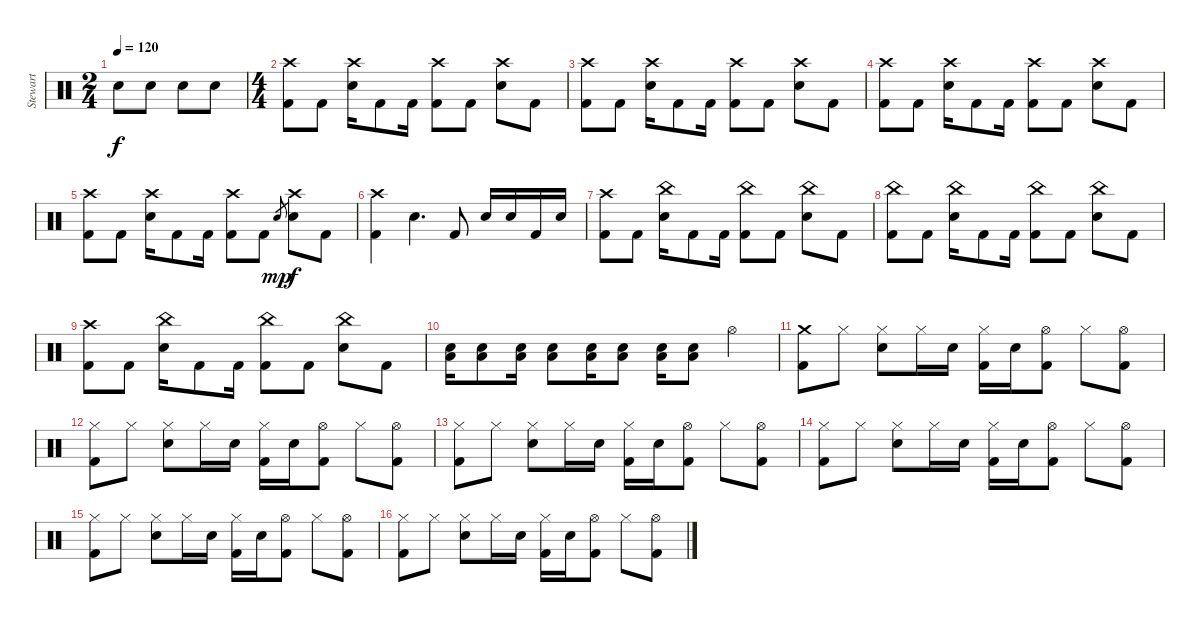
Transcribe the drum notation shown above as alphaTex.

\track ("Stewart" "Stewart") {instrument percussion}
\staff {score}
\articulation defaults
\ts (2 4)
\tempo 120
\clef neutral
\ks c "Electric Snare (hit)".8{dy f} "Electric Snare (hit)".8 "Electric Snare (hit)".8 "Electric Snare (hit)".8
|
\ts (4 4)
("Kick (hit) 2" "Crash high (hit)").8 "Kick (hit) 2".8 ("Electric Snare (hit)" "Crash high (hit)").16 "Kick (hit) 2".8 "Kick (hit) 2".16 ("Kick (hit) 2" "Crash high (hit)").8 "Kick (hit) 2".8 ("Electric Snare (hit)" "Crash high (hit)").8 "Kick (hit) 2".8 |
("Kick (hit) 2" "Crash high (hit)").8 "Kick (hit) 2".8 ("Electric Snare (hit)" "Crash high (hit)").16 "Kick (hit) 2".8 "Kick (hit) 2".16 ("Kick (hit) 2" "Crash high (hit)").8 "Kick (hit) 2".8 ("Electric Snare (hit)" "Crash high (hit)").8 "Kick (hit) 2".8 |
("Kick (hit) 2" "Crash high (hit)").8 "Kick (hit) 2".8 ("Electric Snare (hit)" "Crash high (hit)").16 "Kick (hit) 2".8 "Kick (hit) 2".16 ("Kick (hit) 2" "Crash high (hit)").8 "Kick (hit) 2".8 ("Electric Snare (hit)" "Crash high (hit)").8 "Kick (hit) 2".8 |
("Kick (hit) 2" "Crash high (hit)").8 "Kick (hit) 2".8 ("Electric Snare (hit)" "Crash high (hit)").16 "Kick (hit) 2".8 "Kick (hit) 2".16 ("Kick (hit) 2" "Crash high (hit)").8 "Kick (hit) 2".8 "Snare (hit) 2".8{gr dy mp} ("Electric Snare (hit)" "Crash high (hit)").8{dy f} "Kick (hit) 2".8 |
("Kick (hit) 2" "Crash high (hit)").4 "Electric Snare (hit)".4{d} "Kick (hit) 2".8 "Electric Snare (hit)".16 "Electric Snare (hit)".16 "Kick (hit) 2".16 "Electric Snare (hit)".16 |
("Kick (hit) 2" "Crash high (hit)").8 "Kick (hit) 2".8 ("Electric Snare (hit)" "China (hit)").16 "Kick (hit) 2".8 "Kick (hit) 2".16 ("Kick (hit) 2" "China (hit)").8 "Kick (hit) 2".8 ("Electric Snare (hit)" "China (hit)").8 "Kick (hit) 2".8 |
("Kick (hit) 2" "China (hit)").8 "Kick (hit) 2".8 ("Electric Snare (hit)" "China (hit)").16 "Kick (hit) 2".8 "Kick (hit) 2".16 ("Kick (hit) 2" "China (hit)").8 "Kick (hit) 2".8 ("Electric Snare (hit)" "China (hit)").8 "Kick (hit) 2".8 |
("Kick (hit) 2" "Crash high (hit)").8 "Kick (hit) 2".8 ("Electric Snare (hit)" "China (hit)").16 "Kick (hit) 2".8 "Kick (hit) 2".16 ("Kick (hit) 2" "China (hit)").8 "Kick (hit) 2".8 ("Electric Snare (hit)" "China (hit)").8 "Kick (hit) 2".8 |
("Electric Snare (hit)" "Low Tom (hit)").16 ("Electric Snare (hit)" "Low Tom (hit)").8 ("Electric Snare (hit)" "Low Tom (hit)").16 ("Electric Snare (hit)" "Low Tom (hit)").8 ("Electric Snare (hit)" "Low Tom (hit)").16 ("Electric Snare (hit)" "Low Tom (hit)").8 ("Electric Snare (hit)" "Low Tom (hit)").16 ("Electric Snare (hit)" "Low Tom (hit)").8 "Hi-Hat (open)".4 |
("Crash medium (hit)" "Kick (hit) 2").8 "Hi-Hat (closed)".8 ("Hi-Hat (closed)" "Electric Snare (hit)").8 "Hi-Hat (closed)".16 "Electric Snare (hit)".16 ("Hi-Hat (closed)" "Kick (hit) 2").16 "Electric Snare (hit)".16 ("Hi-Hat (open)" "Kick (hit) 2").8 "Hi-Hat (closed)".8 ("Hi-Hat (open)" "Kick (hit) 2").8 |
("Hi-Hat (closed)" "Kick (hit) 2").8 "Hi-Hat (closed)".8 ("Hi-Hat (closed)" "Electric Snare (hit)").8 "Hi-Hat (closed)".16 "Electric Snare (hit)".16 ("Hi-Hat (closed)" "Kick (hit) 2").16 "Electric Snare (hit)".16 ("Hi-Hat (open)" "Kick (hit) 2").8 "Hi-Hat (closed)".8 ("Hi-Hat (open)" "Kick (hit) 2").8 |
("Hi-Hat (closed)" "Kick (hit) 2").8 "Hi-Hat (closed)".8 ("Hi-Hat (closed)" "Electric Snare (hit)").8 "Hi-Hat (closed)".16 "Electric Snare (hit)".16 ("Hi-Hat (closed)" "Kick (hit) 2").16 "Electric Snare (hit)".16 ("Hi-Hat (open)" "Kick (hit) 2").8 "Hi-Hat (closed)".8 ("Hi-Hat (open)" "Kick (hit) 2").8 |
("Hi-Hat (closed)" "Kick (hit) 2").8 "Hi-Hat (closed)".8 ("Hi-Hat (closed)" "Electric Snare (hit)").8 "Hi-Hat (closed)".16 "Electric Snare (hit)".16 ("Hi-Hat (closed)" "Kick (hit) 2").16 "Electric Snare (hit)".16 ("Hi-Hat (open)" "Kick (hit) 2").8 "Hi-Hat (closed)".8 ("Hi-Hat (open)" "Kick (hit) 2").8 |
("Hi-Hat (closed)" "Kick (hit) 2").8 "Hi-Hat (closed)".8 ("Hi-Hat (closed)" "Electric Snare (hit)").8 "Hi-Hat (closed)".16 "Electric Snare (hit)".16 ("Hi-Hat (closed)" "Kick (hit) 2").16 "Electric Snare (hit)".16 ("Hi-Hat (open)" "Kick (hit) 2").8 "Hi-Hat (closed)".8 ("Hi-Hat (open)" "Kick (hit) 2").8 |
("Hi-Hat (closed)" "Kick (hit) 2").8 "Hi-Hat (closed)".8 ("Hi-Hat (closed)" "Electric Snare (hit)").8 "Hi-Hat (closed)".16 "Electric Snare (hit)".16 ("Hi-Hat (closed)" "Kick (hit) 2").16 "Electric Snare (hit)".16 ("Hi-Hat (open)" "Kick (hit) 2").8 "Hi-Hat (closed)".8 ("Hi-Hat (open)" "Kick (hit) 2").8
